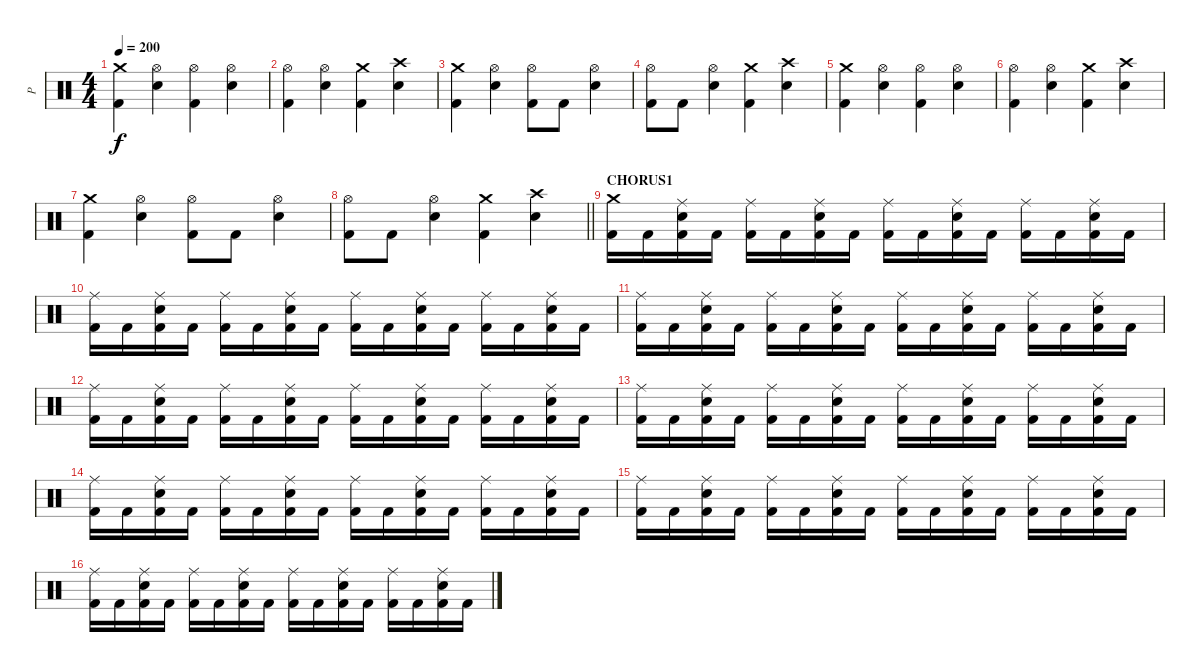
\track ("P" "P") {instrument percussion}
\staff {score}
\articulation defaults
\ts (4 4)
\tempo 200
\clef neutral
\ks c
("Crash medium (hit)" "Kick (hit) 2").4{dy f} ("Hi-Hat (open)" "Electric Snare (hit)").4 ("Hi-Hat (open)" "Kick (hit) 2").4 ("Hi-Hat (open)" "Electric Snare (hit)").4 |
("Hi-Hat (open)" "Kick (hit) 2").4 ("Hi-Hat (open)" "Electric Snare (hit)").4 ("Crash medium (hit)" "Kick (hit) 2").4 ("Crash high (hit)" "Electric Snare (hit)").4 |
("Crash medium (hit)" "Kick (hit) 2").4 ("Hi-Hat (open)" "Electric Snare (hit)").4 ("Hi-Hat (open)" "Kick (hit) 2").8 "Kick (hit) 2".8 ("Hi-Hat (open)" "Electric Snare (hit)").4 |
("Hi-Hat (open)" "Kick (hit) 2").8 "Kick (hit) 2".8 ("Hi-Hat (open)" "Electric Snare (hit)").4 ("Crash medium (hit)" "Kick (hit) 2").4 ("Crash high (hit)" "Electric Snare (hit)").4 |
("Crash medium (hit)" "Kick (hit) 2").4 ("Hi-Hat (open)" "Electric Snare (hit)").4 ("Hi-Hat (open)" "Kick (hit) 2").4 ("Hi-Hat (open)" "Electric Snare (hit)").4 |
("Hi-Hat (open)" "Kick (hit) 2").4 ("Hi-Hat (open)" "Electric Snare (hit)").4 ("Crash medium (hit)" "Kick (hit) 2").4 ("Crash high (hit)" "Electric Snare (hit)").4 |
("Crash medium (hit)" "Kick (hit) 2").4 ("Hi-Hat (open)" "Electric Snare (hit)").4 ("Hi-Hat (open)" "Kick (hit) 2").8 "Kick (hit) 2".8 ("Hi-Hat (open)" "Electric Snare (hit)").4 |
\barLineRight lightlight
("Hi-Hat (open)" "Kick (hit) 2").8 "Kick (hit) 2".8 ("Hi-Hat (open)" "Electric Snare (hit)").4 ("Crash medium (hit)" "Kick (hit) 2").4 ("Crash high (hit)" "Electric Snare (hit)").4 |
\section ("" "CHORUS1")
("Crash medium (hit)" "Kick (hit) 2").16 "Kick (hit) 2".16 ("Ride (middle)" "Electric Snare (hit)" "Kick (hit) 2").16 "Kick (hit) 2".16 ("Ride (middle)" "Kick (hit) 2").16 "Kick (hit) 2".16 ("Ride (middle)" "Electric Snare (hit)" "Kick (hit) 2").16 "Kick (hit) 2".16 ("Ride (middle)" "Kick (hit) 2").16 "Kick (hit) 2".16 ("Ride (middle)" "Electric Snare (hit)" "Kick (hit) 2").16 "Kick (hit) 2".16 ("Ride (middle)" "Kick (hit) 2").16 "Kick (hit) 2".16 ("Ride (middle)" "Electric Snare (hit)" "Kick (hit) 2").16 "Kick (hit) 2".16 |
("Ride (middle)" "Kick (hit) 2").16 "Kick (hit) 2".16 ("Ride (middle)" "Electric Snare (hit)" "Kick (hit) 2").16 "Kick (hit) 2".16 ("Ride (middle)" "Kick (hit) 2").16 "Kick (hit) 2".16 ("Ride (middle)" "Electric Snare (hit)" "Kick (hit) 2").16 "Kick (hit) 2".16 ("Ride (middle)" "Kick (hit) 2").16 "Kick (hit) 2".16 ("Ride (middle)" "Electric Snare (hit)" "Kick (hit) 2").16 "Kick (hit) 2".16 ("Ride (middle)" "Kick (hit) 2").16 "Kick (hit) 2".16 ("Ride (middle)" "Electric Snare (hit)" "Kick (hit) 2").16 "Kick (hit) 2".16 |
("Ride (middle)" "Kick (hit) 2").16 "Kick (hit) 2".16 ("Ride (middle)" "Electric Snare (hit)" "Kick (hit) 2").16 "Kick (hit) 2".16 ("Ride (middle)" "Kick (hit) 2").16 "Kick (hit) 2".16 ("Ride (middle)" "Electric Snare (hit)" "Kick (hit) 2").16 "Kick (hit) 2".16 ("Ride (middle)" "Kick (hit) 2").16 "Kick (hit) 2".16 ("Ride (middle)" "Electric Snare (hit)" "Kick (hit) 2").16 "Kick (hit) 2".16 ("Ride (middle)" "Kick (hit) 2").16 "Kick (hit) 2".16 ("Ride (middle)" "Electric Snare (hit)" "Kick (hit) 2").16 "Kick (hit) 2".16 |
("Ride (middle)" "Kick (hit) 2").16 "Kick (hit) 2".16 ("Ride (middle)" "Electric Snare (hit)" "Kick (hit) 2").16 "Kick (hit) 2".16 ("Ride (middle)" "Kick (hit) 2").16 "Kick (hit) 2".16 ("Ride (middle)" "Electric Snare (hit)" "Kick (hit) 2").16 "Kick (hit) 2".16 ("Ride (middle)" "Kick (hit) 2").16 "Kick (hit) 2".16 ("Ride (middle)" "Electric Snare (hit)" "Kick (hit) 2").16 "Kick (hit) 2".16 ("Ride (middle)" "Kick (hit) 2").16 "Kick (hit) 2".16 ("Ride (middle)" "Electric Snare (hit)" "Kick (hit) 2").16 "Kick (hit) 2".16 |
("Ride (middle)" "Kick (hit) 2").16 "Kick (hit) 2".16 ("Ride (middle)" "Electric Snare (hit)" "Kick (hit) 2").16 "Kick (hit) 2".16 ("Ride (middle)" "Kick (hit) 2").16 "Kick (hit) 2".16 ("Ride (middle)" "Electric Snare (hit)" "Kick (hit) 2").16 "Kick (hit) 2".16 ("Ride (middle)" "Kick (hit) 2").16 "Kick (hit) 2".16 ("Ride (middle)" "Electric Snare (hit)" "Kick (hit) 2").16 "Kick (hit) 2".16 ("Ride (middle)" "Kick (hit) 2").16 "Kick (hit) 2".16 ("Ride (middle)" "Electric Snare (hit)" "Kick (hit) 2").16 "Kick (hit) 2".16 |
("Ride (middle)" "Kick (hit) 2").16 "Kick (hit) 2".16 ("Ride (middle)" "Electric Snare (hit)" "Kick (hit) 2").16 "Kick (hit) 2".16 ("Ride (middle)" "Kick (hit) 2").16 "Kick (hit) 2".16 ("Ride (middle)" "Electric Snare (hit)" "Kick (hit) 2").16 "Kick (hit) 2".16 ("Ride (middle)" "Kick (hit) 2").16 "Kick (hit) 2".16 ("Ride (middle)" "Electric Snare (hit)" "Kick (hit) 2").16 "Kick (hit) 2".16 ("Ride (middle)" "Kick (hit) 2").16 "Kick (hit) 2".16 ("Ride (middle)" "Electric Snare (hit)" "Kick (hit) 2").16 "Kick (hit) 2".16 |
("Ride (middle)" "Kick (hit) 2").16 "Kick (hit) 2".16 ("Ride (middle)" "Electric Snare (hit)" "Kick (hit) 2").16 "Kick (hit) 2".16 ("Ride (middle)" "Kick (hit) 2").16 "Kick (hit) 2".16 ("Ride (middle)" "Electric Snare (hit)" "Kick (hit) 2").16 "Kick (hit) 2".16 ("Ride (middle)" "Kick (hit) 2").16 "Kick (hit) 2".16 ("Ride (middle)" "Electric Snare (hit)" "Kick (hit) 2").16 "Kick (hit) 2".16 ("Ride (middle)" "Kick (hit) 2").16 "Kick (hit) 2".16 ("Ride (middle)" "Electric Snare (hit)" "Kick (hit) 2").16 "Kick (hit) 2".16 |
("Ride (middle)" "Kick (hit) 2").16 "Kick (hit) 2".16 ("Ride (middle)" "Electric Snare (hit)" "Kick (hit) 2").16 "Kick (hit) 2".16 ("Ride (middle)" "Kick (hit) 2").16 "Kick (hit) 2".16 ("Ride (middle)" "Electric Snare (hit)" "Kick (hit) 2").16 "Kick (hit) 2".16 ("Ride (middle)" "Kick (hit) 2").16 "Kick (hit) 2".16 ("Ride (middle)" "Electric Snare (hit)" "Kick (hit) 2").16 "Kick (hit) 2".16 ("Ride (middle)" "Kick (hit) 2").16 "Kick (hit) 2".16 ("Ride (middle)" "Electric Snare (hit)" "Kick (hit) 2").16 "Kick (hit) 2".16
